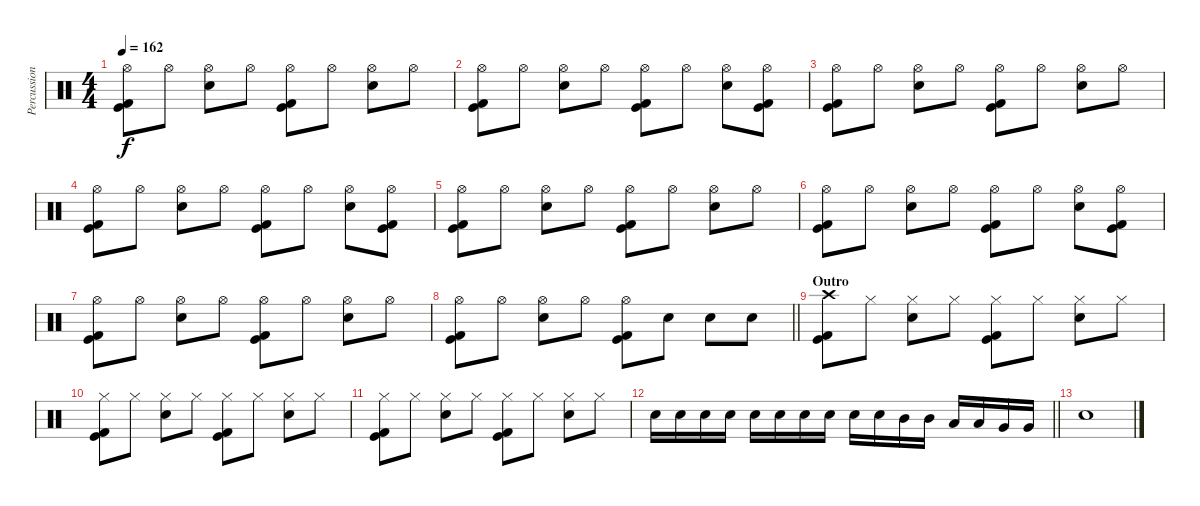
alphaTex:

\track ("Percussion" "Percussion") {instrument percussion}
\staff {score}
\articulation defaults
\ts (4 4)
\section ("" "")
\tempo 162
\clef neutral
\ks c
("Hi-Hat (open)" "Kick (hit)" "Kick (hit) 2").8{dy f} "Hi-Hat (open)".8 ("Hi-Hat (open)" "Electric Snare (hit)").8 "Hi-Hat (open)".8 ("Hi-Hat (open)" "Kick (hit)" "Kick (hit) 2").8 "Hi-Hat (open)".8 ("Hi-Hat (open)" "Electric Snare (hit)").8 "Hi-Hat (open)".8 |
("Hi-Hat (open)" "Kick (hit)" "Kick (hit) 2").8 "Hi-Hat (open)".8 ("Hi-Hat (open)" "Electric Snare (hit)").8 "Hi-Hat (open)".8 ("Hi-Hat (open)" "Kick (hit)" "Kick (hit) 2").8 "Hi-Hat (open)".8 ("Hi-Hat (open)" "Electric Snare (hit)").8 ("Hi-Hat (open)" "Kick (hit)" "Kick (hit) 2").8 |
("Hi-Hat (open)" "Kick (hit)" "Kick (hit) 2").8 "Hi-Hat (open)".8 ("Hi-Hat (open)" "Electric Snare (hit)").8 "Hi-Hat (open)".8 ("Hi-Hat (open)" "Kick (hit)" "Kick (hit) 2").8 "Hi-Hat (open)".8 ("Hi-Hat (open)" "Electric Snare (hit)").8 "Hi-Hat (open)".8 |
("Hi-Hat (open)" "Kick (hit)" "Kick (hit) 2").8 "Hi-Hat (open)".8 ("Hi-Hat (open)" "Electric Snare (hit)").8 "Hi-Hat (open)".8 ("Hi-Hat (open)" "Kick (hit)" "Kick (hit) 2").8 "Hi-Hat (open)".8 ("Hi-Hat (open)" "Electric Snare (hit)").8 ("Hi-Hat (open)" "Kick (hit)" "Kick (hit) 2").8 |
("Hi-Hat (open)" "Kick (hit)" "Kick (hit) 2").8 "Hi-Hat (open)".8 ("Hi-Hat (open)" "Electric Snare (hit)").8 "Hi-Hat (open)".8 ("Hi-Hat (open)" "Kick (hit)" "Kick (hit) 2").8 "Hi-Hat (open)".8 ("Hi-Hat (open)" "Electric Snare (hit)").8 "Hi-Hat (open)".8 |
("Hi-Hat (open)" "Kick (hit)" "Kick (hit) 2").8 "Hi-Hat (open)".8 ("Hi-Hat (open)" "Electric Snare (hit)").8 "Hi-Hat (open)".8 ("Hi-Hat (open)" "Kick (hit)" "Kick (hit) 2").8 "Hi-Hat (open)".8 ("Hi-Hat (open)" "Electric Snare (hit)").8 ("Hi-Hat (open)" "Kick (hit)" "Kick (hit) 2").8 |
("Hi-Hat (open)" "Kick (hit)" "Kick (hit) 2").8 "Hi-Hat (open)".8 ("Hi-Hat (open)" "Electric Snare (hit)").8 "Hi-Hat (open)".8 ("Hi-Hat (open)" "Kick (hit)" "Kick (hit) 2").8 "Hi-Hat (open)".8 ("Hi-Hat (open)" "Electric Snare (hit)").8 "Hi-Hat (open)".8 |
\barLineRight lightlight
("Hi-Hat (open)" "Kick (hit)" "Kick (hit) 2").8 "Hi-Hat (open)".8 ("Hi-Hat (open)" "Electric Snare (hit)").8 "Hi-Hat (open)".8 ("Hi-Hat (open)" "Kick (hit)" "Kick (hit) 2").8 "Electric Snare (hit)".8 "Electric Snare (hit)".8 "Electric Snare (hit)".8 |
\section ("" "Outro")
("Crash high (hit)" "Kick (hit)" "Kick (hit) 2").8 "Hi-Hat (closed)".8 ("Hi-Hat (closed)" "Electric Snare (hit)").8 "Hi-Hat (closed)".8 ("Hi-Hat (closed)" "Kick (hit)" "Kick (hit) 2").8 "Hi-Hat (closed)".8 ("Hi-Hat (closed)" "Electric Snare (hit)").8 "Hi-Hat (closed)".8 |
("Hi-Hat (closed)" "Kick (hit)" "Kick (hit) 2").8 "Hi-Hat (closed)".8 ("Hi-Hat (closed)" "Electric Snare (hit)").8 "Hi-Hat (closed)".8 ("Hi-Hat (closed)" "Kick (hit)" "Kick (hit) 2").8 "Hi-Hat (closed)".8 ("Hi-Hat (closed)" "Electric Snare (hit)").8 "Hi-Hat (closed)".8 |
("Hi-Hat (closed)" "Kick (hit)" "Kick (hit) 2").8 "Hi-Hat (closed)".8 ("Hi-Hat (closed)" "Electric Snare (hit)").8 "Hi-Hat (closed)".8 ("Hi-Hat (closed)" "Kick (hit)" "Kick (hit) 2").8 "Hi-Hat (closed)".8 ("Hi-Hat (closed)" "Electric Snare (hit)").8 "Hi-Hat (closed)".8 |
\barLineRight lightlight "Electric Snare (hit)".16 "Electric Snare (hit)".16 "Electric Snare (hit)".16 "Electric Snare (hit)".16 "Electric Snare (hit)".16 "Electric Snare (hit)".16 "Electric Snare (hit)".16 "Electric Snare (hit)".16 "Electric Snare (hit)".16 "Electric Snare (hit)".16 "Mid Tom (hit)".16 "Mid Tom (hit)".16 "Low Tom (hit)".16 "Low Tom (hit)".16 "Very Low Tom (hit)".16 "Very Low Tom (hit)".16
|
"Electric Snare (hit)".1
